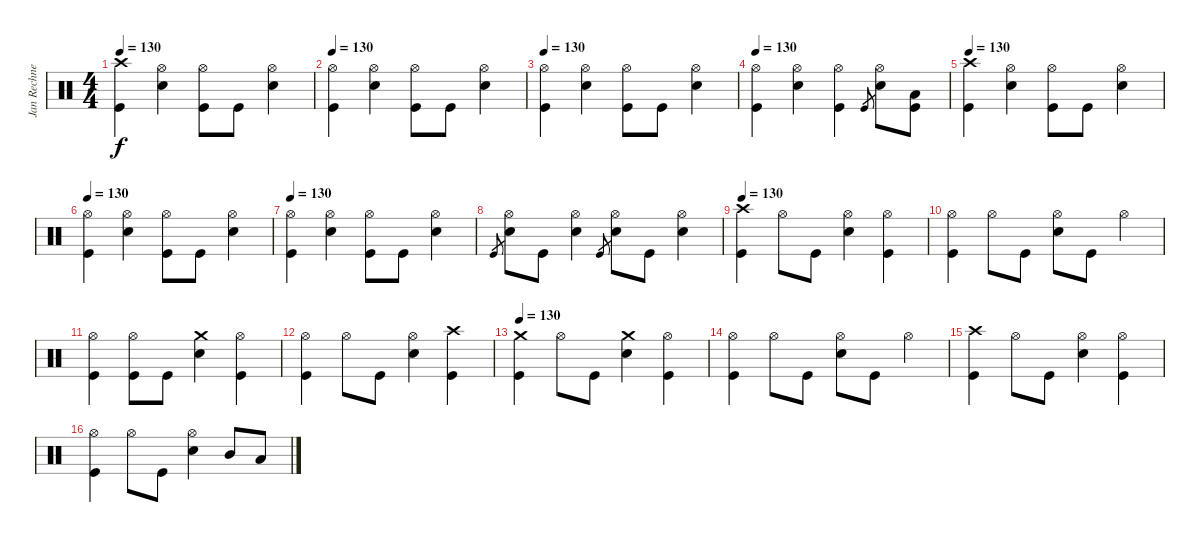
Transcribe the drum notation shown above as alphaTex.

\track ("Jan Rechnerger" "Jan Rechne") {instrument percussion}
\staff {score}
\articulation defaults
\ts (4 4)
\tempo 130
\clef neutral
\ks c
("Kick (hit)" "Crash high (hit)").4{dy f} ("Snare (hit) 2" "Hi-Hat (open)").4 ("Kick (hit)" "Hi-Hat (open)").8 "Kick (hit)".8 ("Snare (hit) 2" "Hi-Hat (open)").4 |
\tempo 130
("Kick (hit)" "Hi-Hat (open)").4 ("Snare (hit) 2" "Hi-Hat (open)").4 ("Kick (hit)" "Hi-Hat (open)").8 "Kick (hit)".8 ("Snare (hit) 2" "Hi-Hat (open)").4 |
\tempo 130
("Kick (hit)" "Hi-Hat (open)").4 ("Snare (hit) 2" "Hi-Hat (open)").4 ("Kick (hit)" "Hi-Hat (open)").8 "Kick (hit)".8 ("Snare (hit) 2" "Hi-Hat (open)").4 |
\tempo 130
("Kick (hit)" "Hi-Hat (open)").4 ("Snare (hit) 2" "Hi-Hat (open)").4 ("Kick (hit)" "Hi-Hat (open)").4 "Kick (hit)".8{gr} ("Snare (hit) 2" "Hi-Hat (open)").8 ("Kick (hit)" "Low Tom (hit)").8 |
\tempo 130
("Kick (hit)" "Crash high (hit)").4 ("Snare (hit) 2" "Hi-Hat (open)").4 ("Kick (hit)" "Hi-Hat (open)").8 "Kick (hit)".8 ("Snare (hit) 2" "Hi-Hat (open)").4 |
\tempo 130
("Kick (hit)" "Hi-Hat (open)").4 ("Snare (hit) 2" "Hi-Hat (open)").4 ("Kick (hit)" "Hi-Hat (open)").8 "Kick (hit)".8 ("Snare (hit) 2" "Hi-Hat (open)").4 |
\tempo 130
("Kick (hit)" "Hi-Hat (open)").4 ("Snare (hit) 2" "Hi-Hat (open)").4 ("Kick (hit)" "Hi-Hat (open)").8 "Kick (hit)".8 ("Snare (hit) 2" "Hi-Hat (open)").4 |
"Kick (hit)".8{gr} ("Snare (hit) 2" "Hi-Hat (open)").8 "Kick (hit)".8 ("Snare (hit) 2" "Hi-Hat (open)").4 "Kick (hit)".8{gr} ("Snare (hit) 2" "Hi-Hat (open)").8 "Kick (hit)".8 ("Snare (hit) 2" "Hi-Hat (open)").4 |
\tempo 130
("Kick (hit)" "Crash high (hit)").4 "Hi-Hat (open)".8 "Kick (hit)".8 ("Snare (hit) 2" "Hi-Hat (open)").4 ("Kick (hit)" "Hi-Hat (open)").4 |
("Kick (hit)" "Hi-Hat (open)").4 "Hi-Hat (open)".8 "Kick (hit)".8 ("Snare (hit) 2" "Hi-Hat (open)").8 "Kick (hit)".8 "Hi-Hat (open)".4 |
("Kick (hit)" "Hi-Hat (open)").4 ("Kick (hit)" "Hi-Hat (open)").8 "Kick (hit)".8 ("Snare (hit) 2" "Crash medium (hit)").4 ("Kick (hit)" "Hi-Hat (open)").4 |
("Kick (hit)" "Hi-Hat (open)").4 "Hi-Hat (open)".8 "Kick (hit)".8 ("Snare (hit) 2" "Hi-Hat (open)").4 ("Kick (hit)" "Crash high (hit)").4 |
\tempo 130
("Kick (hit)" "Crash medium (hit)").4 "Hi-Hat (open)".8 "Kick (hit)".8 ("Snare (hit) 2" "Crash medium (hit)").4 ("Kick (hit)" "Hi-Hat (open)").4 |
("Kick (hit)" "Hi-Hat (open)").4 "Hi-Hat (open)".8 "Kick (hit)".8 ("Snare (hit) 2" "Hi-Hat (open)").8 "Kick (hit)".8 "Hi-Hat (open)".4 |
("Kick (hit)" "Crash high (hit)").4 "Hi-Hat (open)".8 "Kick (hit)".8 ("Snare (hit) 2" "Hi-Hat (open)").4 ("Kick (hit)" "Hi-Hat (open)").4 |
("Kick (hit)" "Hi-Hat (open)").4 "Hi-Hat (open)".8 "Kick (hit)".8 ("Snare (hit) 2" "Hi-Hat (open)").4 "Mid Tom (hit)".8 "Low Tom (hit)".8
